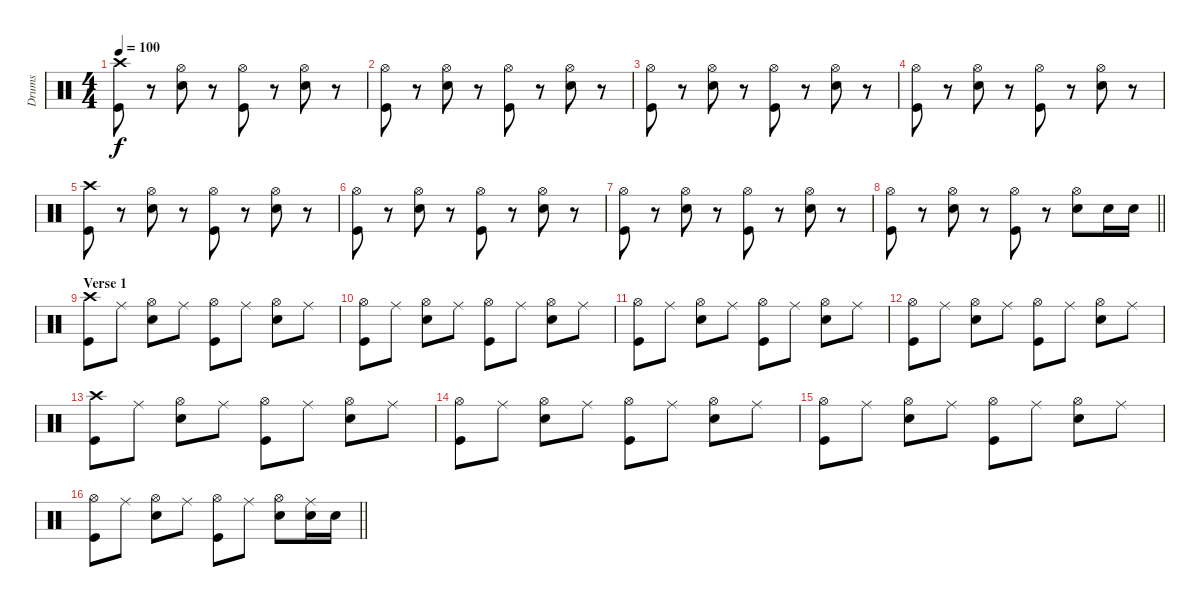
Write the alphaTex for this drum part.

\track ("Drums" "Drums") {instrument percussion}
\staff {score}
\articulation defaults
\ts (4 4)
\tempo 100
\clef neutral
\ks c
("Crash high (hit)" "Kick (hit)").8{dy f} r.8 ("Hi-Hat (open)" "Electric Snare (hit)").8 r.8 ("Hi-Hat (open)" "Kick (hit)").8 r.8 ("Hi-Hat (open)" "Electric Snare (hit)").8 r.8 |
("Hi-Hat (open)" "Kick (hit)").8 r.8 ("Hi-Hat (open)" "Electric Snare (hit)").8 r.8 ("Hi-Hat (open)" "Kick (hit)").8 r.8 ("Hi-Hat (open)" "Electric Snare (hit)").8 r.8 |
("Hi-Hat (open)" "Kick (hit)").8 r.8 ("Hi-Hat (open)" "Electric Snare (hit)").8 r.8 ("Hi-Hat (open)" "Kick (hit)").8 r.8 ("Hi-Hat (open)" "Electric Snare (hit)").8 r.8 |
("Hi-Hat (open)" "Kick (hit)").8 r.8 ("Hi-Hat (open)" "Electric Snare (hit)").8 r.8 ("Hi-Hat (open)" "Kick (hit)").8 r.8 ("Hi-Hat (open)" "Electric Snare (hit)").8 r.8 |
("Crash high (hit)" "Kick (hit)").8 r.8 ("Hi-Hat (open)" "Electric Snare (hit)").8 r.8 ("Hi-Hat (open)" "Kick (hit)").8 r.8 ("Hi-Hat (open)" "Electric Snare (hit)").8 r.8 |
("Hi-Hat (open)" "Kick (hit)").8 r.8 ("Hi-Hat (open)" "Electric Snare (hit)").8 r.8 ("Hi-Hat (open)" "Kick (hit)").8 r.8 ("Hi-Hat (open)" "Electric Snare (hit)").8 r.8 |
("Hi-Hat (open)" "Kick (hit)").8 r.8 ("Hi-Hat (open)" "Electric Snare (hit)").8 r.8 ("Hi-Hat (open)" "Kick (hit)").8 r.8 ("Hi-Hat (open)" "Electric Snare (hit)").8 r.8 |
\barLineRight lightlight
("Hi-Hat (open)" "Kick (hit)").8 r.8 ("Hi-Hat (open)" "Electric Snare (hit)").8 r.8 ("Hi-Hat (open)" "Kick (hit)").8 r.8 ("Hi-Hat (open)" "Electric Snare (hit)").8 "Electric Snare (hit)".16 "Electric Snare (hit)".16 |
\section ("" "Verse 1")
("Crash high (hit)" "Kick (hit)").8 "Ride (middle)".8 ("Hi-Hat (open)" "Electric Snare (hit)").8 "Ride (middle)".8 ("Hi-Hat (open)" "Kick (hit)").8 "Ride (middle)".8 ("Hi-Hat (open)" "Electric Snare (hit)").8 "Ride (middle)".8 |
("Hi-Hat (open)" "Kick (hit)").8 "Ride (middle)".8 ("Hi-Hat (open)" "Electric Snare (hit)").8 "Ride (middle)".8 ("Hi-Hat (open)" "Kick (hit)").8 "Ride (middle)".8 ("Hi-Hat (open)" "Electric Snare (hit)").8 "Ride (middle)".8 |
("Hi-Hat (open)" "Kick (hit)").8 "Ride (middle)".8 ("Hi-Hat (open)" "Electric Snare (hit)").8 "Ride (middle)".8 ("Hi-Hat (open)" "Kick (hit)").8 "Ride (middle)".8 ("Hi-Hat (open)" "Electric Snare (hit)").8 "Ride (middle)".8 |
("Hi-Hat (open)" "Kick (hit)").8 "Ride (middle)".8 ("Hi-Hat (open)" "Electric Snare (hit)").8 "Ride (middle)".8 ("Hi-Hat (open)" "Kick (hit)").8 "Ride (middle)".8 ("Hi-Hat (open)" "Electric Snare (hit)").8 "Ride (middle)".8 |
("Crash high (hit)" "Kick (hit)").8 "Ride (middle)".8 ("Hi-Hat (open)" "Electric Snare (hit)").8 "Ride (middle)".8 ("Hi-Hat (open)" "Kick (hit)").8 "Ride (middle)".8 ("Hi-Hat (open)" "Electric Snare (hit)").8 "Ride (middle)".8 |
("Hi-Hat (open)" "Kick (hit)").8 "Ride (middle)".8 ("Hi-Hat (open)" "Electric Snare (hit)").8 "Ride (middle)".8 ("Hi-Hat (open)" "Kick (hit)").8 "Ride (middle)".8 ("Hi-Hat (open)" "Electric Snare (hit)").8 "Ride (middle)".8 |
("Hi-Hat (open)" "Kick (hit)").8 "Ride (middle)".8 ("Hi-Hat (open)" "Electric Snare (hit)").8 "Ride (middle)".8 ("Hi-Hat (open)" "Kick (hit)").8 "Ride (middle)".8 ("Hi-Hat (open)" "Electric Snare (hit)").8 "Ride (middle)".8 |
\barLineRight lightlight
("Hi-Hat (open)" "Kick (hit)").8 "Ride (middle)".8 ("Hi-Hat (open)" "Electric Snare (hit)").8 "Ride (middle)".8 ("Hi-Hat (open)" "Kick (hit)").8 "Ride (middle)".8 ("Hi-Hat (open)" "Electric Snare (hit)").8 ("Ride (middle)" "Electric Snare (hit)").16 "Electric Snare (hit)".16
